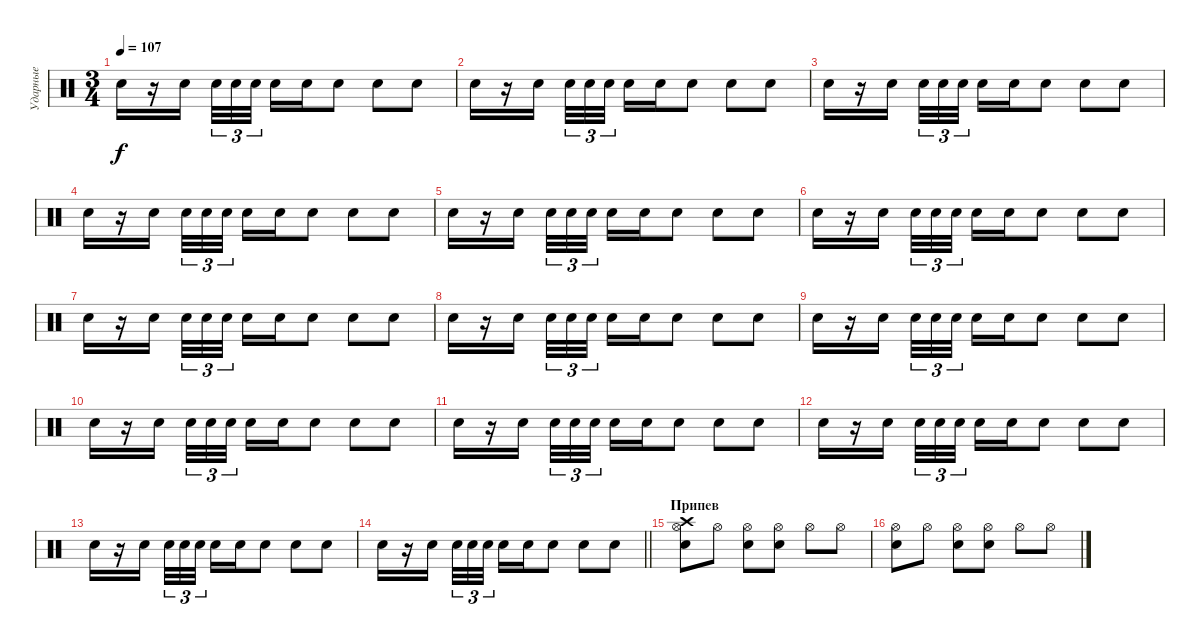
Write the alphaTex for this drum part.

\track ("Ударные" "Ударные") {instrument percussion}
\staff {score}
\articulation defaults
\ts (3 4)
\tempo 107
\clef neutral
\ks c "Snare (hit) 2".16{dy f}
r.16 "Snare (hit) 2".16{beam splitsecondary} "Snare (hit) 2".32{tu (3 2)} "Snare (hit) 2".32{tu (3 2)} "Snare (hit) 2".32{tu (3 2)} "Snare (hit) 2".16 "Snare (hit) 2".16 "Snare (hit) 2".8 "Snare (hit) 2".8 "Snare (hit) 2".8 |
"Snare (hit) 2".16 r.16 "Snare (hit) 2".16{beam splitsecondary} "Snare (hit) 2".32{tu (3 2)} "Snare (hit) 2".32{tu (3 2)} "Snare (hit) 2".32{tu (3 2)} "Snare (hit) 2".16 "Snare (hit) 2".16 "Snare (hit) 2".8 "Snare (hit) 2".8 "Snare (hit) 2".8 |
"Snare (hit) 2".16 r.16 "Snare (hit) 2".16{beam splitsecondary} "Snare (hit) 2".32{tu (3 2)} "Snare (hit) 2".32{tu (3 2)} "Snare (hit) 2".32{tu (3 2)} "Snare (hit) 2".16 "Snare (hit) 2".16 "Snare (hit) 2".8 "Snare (hit) 2".8 "Snare (hit) 2".8 |
"Snare (hit) 2".16 r.16 "Snare (hit) 2".16{beam splitsecondary} "Snare (hit) 2".32{tu (3 2)} "Snare (hit) 2".32{tu (3 2)} "Snare (hit) 2".32{tu (3 2)} "Snare (hit) 2".16 "Snare (hit) 2".16 "Snare (hit) 2".8 "Snare (hit) 2".8 "Snare (hit) 2".8 |
"Snare (hit) 2".16 r.16 "Snare (hit) 2".16{beam splitsecondary} "Snare (hit) 2".32{tu (3 2)} "Snare (hit) 2".32{tu (3 2)} "Snare (hit) 2".32{tu (3 2)} "Snare (hit) 2".16 "Snare (hit) 2".16 "Snare (hit) 2".8 "Snare (hit) 2".8 "Snare (hit) 2".8 |
"Snare (hit) 2".16 r.16 "Snare (hit) 2".16{beam splitsecondary} "Snare (hit) 2".32{tu (3 2)} "Snare (hit) 2".32{tu (3 2)} "Snare (hit) 2".32{tu (3 2)} "Snare (hit) 2".16 "Snare (hit) 2".16 "Snare (hit) 2".8 "Snare (hit) 2".8 "Snare (hit) 2".8 |
"Snare (hit) 2".16 r.16 "Snare (hit) 2".16{beam splitsecondary} "Snare (hit) 2".32{tu (3 2)} "Snare (hit) 2".32{tu (3 2)} "Snare (hit) 2".32{tu (3 2)} "Snare (hit) 2".16 "Snare (hit) 2".16 "Snare (hit) 2".8 "Snare (hit) 2".8 "Snare (hit) 2".8 |
"Snare (hit) 2".16 r.16 "Snare (hit) 2".16{beam splitsecondary} "Snare (hit) 2".32{tu (3 2)} "Snare (hit) 2".32{tu (3 2)} "Snare (hit) 2".32{tu (3 2)} "Snare (hit) 2".16 "Snare (hit) 2".16 "Snare (hit) 2".8 "Snare (hit) 2".8 "Snare (hit) 2".8 |
"Snare (hit) 2".16 r.16 "Snare (hit) 2".16{beam splitsecondary} "Snare (hit) 2".32{tu (3 2)} "Snare (hit) 2".32{tu (3 2)} "Snare (hit) 2".32{tu (3 2)} "Snare (hit) 2".16 "Snare (hit) 2".16 "Snare (hit) 2".8 "Snare (hit) 2".8 "Snare (hit) 2".8 |
"Snare (hit) 2".16 r.16 "Snare (hit) 2".16{beam splitsecondary} "Snare (hit) 2".32{tu (3 2)} "Snare (hit) 2".32{tu (3 2)} "Snare (hit) 2".32{tu (3 2)} "Snare (hit) 2".16 "Snare (hit) 2".16 "Snare (hit) 2".8 "Snare (hit) 2".8 "Snare (hit) 2".8 |
"Snare (hit) 2".16 r.16 "Snare (hit) 2".16{beam splitsecondary} "Snare (hit) 2".32{tu (3 2)} "Snare (hit) 2".32{tu (3 2)} "Snare (hit) 2".32{tu (3 2)} "Snare (hit) 2".16 "Snare (hit) 2".16 "Snare (hit) 2".8 "Snare (hit) 2".8 "Snare (hit) 2".8 |
"Snare (hit) 2".16 r.16 "Snare (hit) 2".16{beam splitsecondary} "Snare (hit) 2".32{tu (3 2)} "Snare (hit) 2".32{tu (3 2)} "Snare (hit) 2".32{tu (3 2)} "Snare (hit) 2".16 "Snare (hit) 2".16 "Snare (hit) 2".8 "Snare (hit) 2".8 "Snare (hit) 2".8 |
"Snare (hit) 2".16 r.16 "Snare (hit) 2".16{beam splitsecondary} "Snare (hit) 2".32{tu (3 2)} "Snare (hit) 2".32{tu (3 2)} "Snare (hit) 2".32{tu (3 2)} "Snare (hit) 2".16 "Snare (hit) 2".16 "Snare (hit) 2".8 "Snare (hit) 2".8 "Snare (hit) 2".8 |
\barLineRight lightlight "Snare (hit) 2".16
r.16 "Snare (hit) 2".16{beam splitsecondary} "Snare (hit) 2".32{tu (3 2)} "Snare (hit) 2".32{tu (3 2)} "Snare (hit) 2".32{tu (3 2)} "Snare (hit) 2".16 "Snare (hit) 2".16 "Snare (hit) 2".8 "Snare (hit) 2".8 "Snare (hit) 2".8 |
\section ("" "Припев")
("Hi-Hat (open)" "Crash high (hit)" "Snare (hit) 2").8 "Hi-Hat (open)".8 ("Hi-Hat (open)" "Snare (hit) 2").8 ("Hi-Hat (open)" "Snare (hit) 2").8 "Hi-Hat (open)".8 "Hi-Hat (open)".8 |
("Hi-Hat (open)" "Snare (hit) 2").8 "Hi-Hat (open)".8 ("Hi-Hat (open)" "Snare (hit) 2").8 ("Hi-Hat (open)" "Snare (hit) 2").8 "Hi-Hat (open)".8 "Hi-Hat (open)".8
